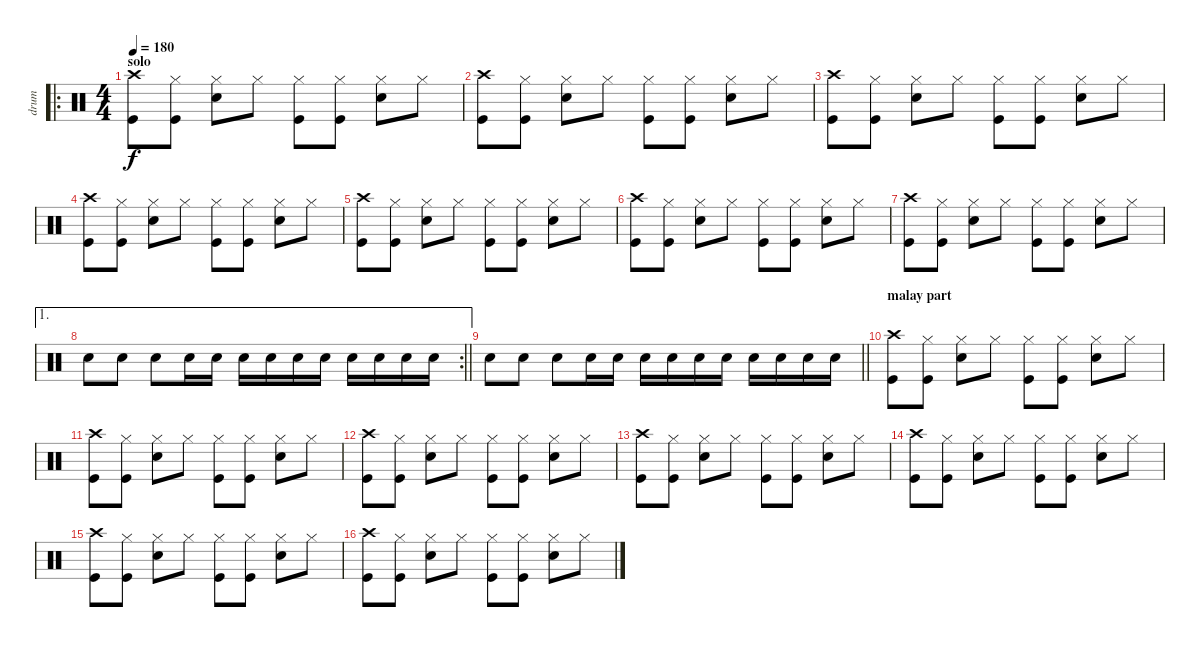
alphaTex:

\track ("drum" "drum") {instrument percussion}
\staff {score}
\articulation defaults
\ro
\ts (4 4)
\section ("" "solo")
\tempo 180
\clef neutral
\ks c
("Crash high (hit)" "Kick (hit)").8{dy f} ("Kick (hit)" "Hi-Hat (closed)").8 ("Snare (hit) 2" "Hi-Hat (closed)").8 "Hi-Hat (closed)".8 ("Kick (hit)" "Hi-Hat (closed)").8 ("Kick (hit)" "Hi-Hat (closed)").8 ("Snare (hit) 2" "Hi-Hat (closed)").8 "Hi-Hat (closed)".8 |
("Crash high (hit)" "Kick (hit)").8 ("Kick (hit)" "Hi-Hat (closed)").8 ("Snare (hit) 2" "Hi-Hat (closed)").8 "Hi-Hat (closed)".8 ("Kick (hit)" "Hi-Hat (closed)").8 ("Kick (hit)" "Hi-Hat (closed)").8 ("Snare (hit) 2" "Hi-Hat (closed)").8 "Hi-Hat (closed)".8 |
("Crash high (hit)" "Kick (hit)").8 ("Kick (hit)" "Hi-Hat (closed)").8 ("Snare (hit) 2" "Hi-Hat (closed)").8 "Hi-Hat (closed)".8 ("Kick (hit)" "Hi-Hat (closed)").8 ("Kick (hit)" "Hi-Hat (closed)").8 ("Snare (hit) 2" "Hi-Hat (closed)").8 "Hi-Hat (closed)".8 |
("Crash high (hit)" "Kick (hit)").8 ("Kick (hit)" "Hi-Hat (closed)").8 ("Snare (hit) 2" "Hi-Hat (closed)").8 "Hi-Hat (closed)".8 ("Kick (hit)" "Hi-Hat (closed)").8 ("Kick (hit)" "Hi-Hat (closed)").8 ("Snare (hit) 2" "Hi-Hat (closed)").8 "Hi-Hat (closed)".8 |
("Crash high (hit)" "Kick (hit)").8 ("Kick (hit)" "Hi-Hat (closed)").8 ("Snare (hit) 2" "Hi-Hat (closed)").8 "Hi-Hat (closed)".8 ("Kick (hit)" "Hi-Hat (closed)").8 ("Kick (hit)" "Hi-Hat (closed)").8 ("Snare (hit) 2" "Hi-Hat (closed)").8 "Hi-Hat (closed)".8 |
("Crash high (hit)" "Kick (hit)").8 ("Kick (hit)" "Hi-Hat (closed)").8 ("Snare (hit) 2" "Hi-Hat (closed)").8 "Hi-Hat (closed)".8 ("Kick (hit)" "Hi-Hat (closed)").8 ("Kick (hit)" "Hi-Hat (closed)").8 ("Snare (hit) 2" "Hi-Hat (closed)").8 "Hi-Hat (closed)".8 |
("Crash high (hit)" "Kick (hit)").8 ("Kick (hit)" "Hi-Hat (closed)").8 ("Snare (hit) 2" "Hi-Hat (closed)").8 "Hi-Hat (closed)".8 ("Kick (hit)" "Hi-Hat (closed)").8 ("Kick (hit)" "Hi-Hat (closed)").8 ("Snare (hit) 2" "Hi-Hat (closed)").8 "Hi-Hat (closed)".8 |
\ae 1
\rc 2
\barLineRight lightlight "Snare (hit) 2".8 "Snare (hit) 2".8 "Snare (hit) 2".8 "Snare (hit) 2".16 "Snare (hit) 2".16 "Snare (hit) 2".16 "Snare (hit) 2".16 "Snare (hit) 2".16 "Snare (hit) 2".16 "Snare (hit) 2".16 "Snare (hit) 2".16 "Snare (hit) 2".16 "Snare (hit) 2".16
|
\barLineRight lightlight "Snare (hit) 2".8 "Snare (hit) 2".8 "Snare (hit) 2".8 "Snare (hit) 2".16 "Snare (hit) 2".16 "Snare (hit) 2".16 "Snare (hit) 2".16 "Snare (hit) 2".16 "Snare (hit) 2".16 "Snare (hit) 2".16 "Snare (hit) 2".16 "Snare (hit) 2".16 "Snare (hit) 2".16
|
\section ("" "malay part")
("Crash high (hit)" "Kick (hit)").8 ("Kick (hit)" "Hi-Hat (closed)").8 ("Snare (hit) 2" "Hi-Hat (closed)").8 "Hi-Hat (closed)".8 ("Kick (hit)" "Hi-Hat (closed)").8 ("Kick (hit)" "Hi-Hat (closed)").8 ("Snare (hit) 2" "Hi-Hat (closed)").8 "Hi-Hat (closed)".8 |
("Crash high (hit)" "Kick (hit)").8 ("Kick (hit)" "Hi-Hat (closed)").8 ("Snare (hit) 2" "Hi-Hat (closed)").8 "Hi-Hat (closed)".8 ("Kick (hit)" "Hi-Hat (closed)").8 ("Kick (hit)" "Hi-Hat (closed)").8 ("Snare (hit) 2" "Hi-Hat (closed)").8 "Hi-Hat (closed)".8 |
("Crash high (hit)" "Kick (hit)").8 ("Kick (hit)" "Hi-Hat (closed)").8 ("Snare (hit) 2" "Hi-Hat (closed)").8 "Hi-Hat (closed)".8 ("Kick (hit)" "Hi-Hat (closed)").8 ("Kick (hit)" "Hi-Hat (closed)").8 ("Snare (hit) 2" "Hi-Hat (closed)").8 "Hi-Hat (closed)".8 |
("Crash high (hit)" "Kick (hit)").8 ("Kick (hit)" "Hi-Hat (closed)").8 ("Snare (hit) 2" "Hi-Hat (closed)").8 "Hi-Hat (closed)".8 ("Kick (hit)" "Hi-Hat (closed)").8 ("Kick (hit)" "Hi-Hat (closed)").8 ("Snare (hit) 2" "Hi-Hat (closed)").8 "Hi-Hat (closed)".8 |
("Crash high (hit)" "Kick (hit)").8 ("Kick (hit)" "Hi-Hat (closed)").8 ("Snare (hit) 2" "Hi-Hat (closed)").8 "Hi-Hat (closed)".8 ("Kick (hit)" "Hi-Hat (closed)").8 ("Kick (hit)" "Hi-Hat (closed)").8 ("Snare (hit) 2" "Hi-Hat (closed)").8 "Hi-Hat (closed)".8 |
("Crash high (hit)" "Kick (hit)").8 ("Kick (hit)" "Hi-Hat (closed)").8 ("Snare (hit) 2" "Hi-Hat (closed)").8 "Hi-Hat (closed)".8 ("Kick (hit)" "Hi-Hat (closed)").8 ("Kick (hit)" "Hi-Hat (closed)").8 ("Snare (hit) 2" "Hi-Hat (closed)").8 "Hi-Hat (closed)".8 |
("Crash high (hit)" "Kick (hit)").8 ("Kick (hit)" "Hi-Hat (closed)").8 ("Snare (hit) 2" "Hi-Hat (closed)").8 "Hi-Hat (closed)".8 ("Kick (hit)" "Hi-Hat (closed)").8 ("Kick (hit)" "Hi-Hat (closed)").8 ("Snare (hit) 2" "Hi-Hat (closed)").8 "Hi-Hat (closed)".8
